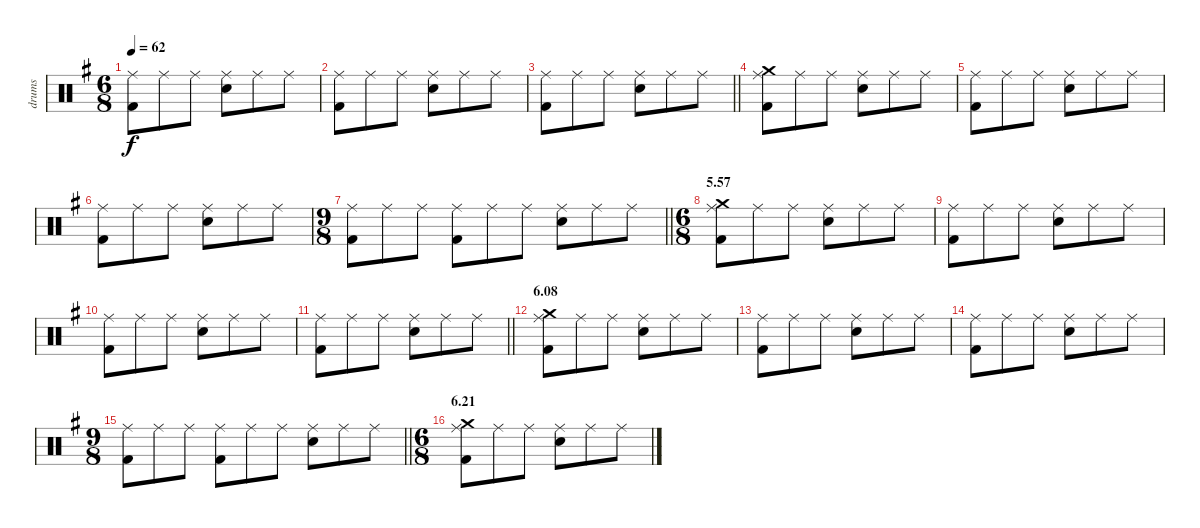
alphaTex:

\track ("drums" "drums") {instrument percussion}
\staff {score}
\articulation defaults
\ts (6 8)
\tempo 62
\clef neutral
\ks g
("Ride (middle)" "Kick (hit) 2").8{dy f} "Ride (middle)".8 "Ride (middle)".8 ("Ride (middle)" "Electric Snare (hit)").8 "Ride (middle)".8 "Ride (middle)".8 |
("Ride (middle)" "Kick (hit) 2").8 "Ride (middle)".8 "Ride (middle)".8 ("Ride (middle)" "Electric Snare (hit)").8 "Ride (middle)".8 "Ride (middle)".8 |
\barLineRight lightlight
("Ride (middle)" "Kick (hit) 2").8 "Ride (middle)".8 "Ride (middle)".8 ("Ride (middle)" "Electric Snare (hit)").8 "Ride (middle)".8 "Ride (middle)".8 |
("Ride (middle)" "Crash medium (hit)" "Kick (hit) 2").8 "Ride (middle)".8 "Ride (middle)".8 ("Ride (middle)" "Electric Snare (hit)").8 "Ride (middle)".8 "Ride (middle)".8 |
("Ride (middle)" "Kick (hit) 2").8 "Ride (middle)".8 "Ride (middle)".8 ("Ride (middle)" "Electric Snare (hit)").8 "Ride (middle)".8 "Ride (middle)".8 |
("Ride (middle)" "Kick (hit) 2").8 "Ride (middle)".8 "Ride (middle)".8 ("Ride (middle)" "Electric Snare (hit)").8 "Ride (middle)".8 "Ride (middle)".8 |
\ts (9 8)
\barLineRight lightlight
("Ride (middle)" "Kick (hit) 2").8 "Ride (middle)".8 "Ride (middle)".8 ("Ride (middle)" "Kick (hit) 2").8 "Ride (middle)".8 "Ride (middle)".8 ("Ride (middle)" "Electric Snare (hit)").8 "Ride (middle)".8 "Ride (middle)".8 |
\ts (6 8)
\section ("" "5.57")
("Ride (middle)" "Crash medium (hit)" "Kick (hit) 2").8 "Ride (middle)".8 "Ride (middle)".8 ("Ride (middle)" "Electric Snare (hit)").8 "Ride (middle)".8 "Ride (middle)".8 |
("Ride (middle)" "Kick (hit) 2").8 "Ride (middle)".8 "Ride (middle)".8 ("Ride (middle)" "Electric Snare (hit)").8 "Ride (middle)".8 "Ride (middle)".8 |
("Ride (middle)" "Kick (hit) 2").8 "Ride (middle)".8 "Ride (middle)".8 ("Ride (middle)" "Electric Snare (hit)").8 "Ride (middle)".8 "Ride (middle)".8 |
\barLineRight lightlight
("Ride (middle)" "Kick (hit) 2").8 "Ride (middle)".8 "Ride (middle)".8 ("Ride (middle)" "Electric Snare (hit)").8 "Ride (middle)".8 "Ride (middle)".8 |
\section ("" "6.08")
("Ride (middle)" "Crash medium (hit)" "Kick (hit) 2").8 "Ride (middle)".8 "Ride (middle)".8 ("Ride (middle)" "Electric Snare (hit)").8 "Ride (middle)".8 "Ride (middle)".8 |
("Ride (middle)" "Kick (hit) 2").8 "Ride (middle)".8 "Ride (middle)".8 ("Ride (middle)" "Electric Snare (hit)").8 "Ride (middle)".8 "Ride (middle)".8 |
("Ride (middle)" "Kick (hit) 2").8 "Ride (middle)".8 "Ride (middle)".8 ("Ride (middle)" "Electric Snare (hit)").8 "Ride (middle)".8 "Ride (middle)".8 |
\ts (9 8)
\barLineRight lightlight
("Ride (middle)" "Kick (hit) 2").8 "Ride (middle)".8 "Ride (middle)".8 ("Ride (middle)" "Kick (hit) 2").8 "Ride (middle)".8 "Ride (middle)".8 ("Ride (middle)" "Electric Snare (hit)").8 "Ride (middle)".8 "Ride (middle)".8 |
\ts (6 8)
\section ("" "6.21")
("Ride (middle)" "Crash medium (hit)" "Kick (hit) 2").8 "Ride (middle)".8 "Ride (middle)".8 ("Ride (middle)" "Electric Snare (hit)").8 "Ride (middle)".8 "Ride (middle)".8
